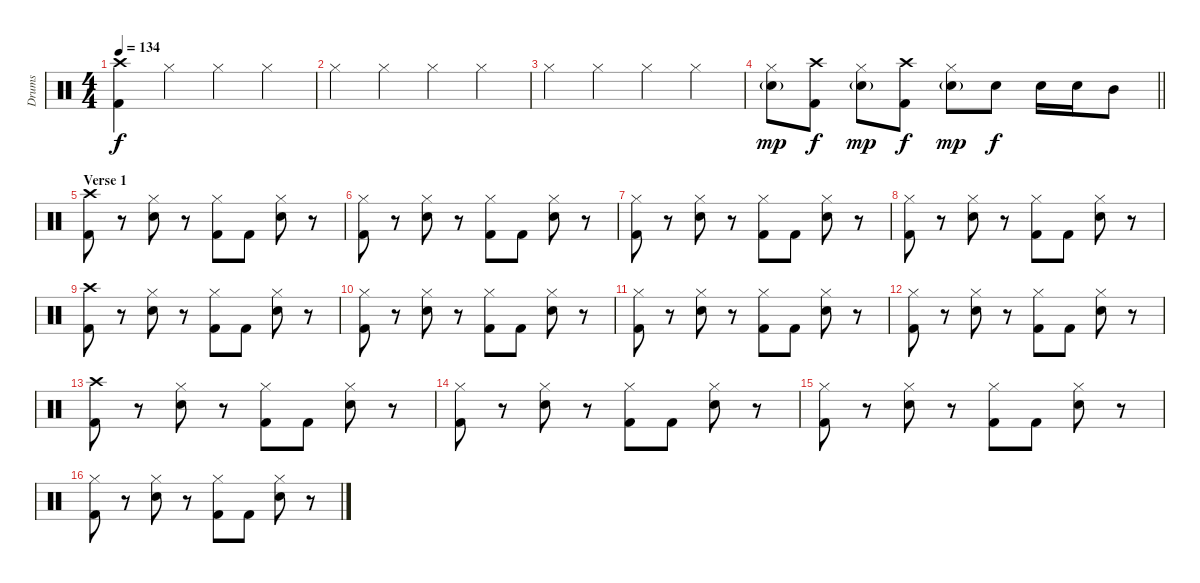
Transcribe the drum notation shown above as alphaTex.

\track ("Drums" "Drums") {instrument percussion}
\staff {score}
\articulation defaults
\ts (4 4)
\tempo 134
\clef neutral
\ks c
("Crash high (hit)" "Kick (hit) 2").4{dy f} "Hi-Hat (closed)".4 "Hi-Hat (closed)".4 "Hi-Hat (closed)".4 |
"Hi-Hat (closed)".4 "Hi-Hat (closed)".4 "Hi-Hat (closed)".4 "Hi-Hat (closed)".4 |
"Hi-Hat (closed)".4 "Hi-Hat (closed)".4 "Hi-Hat (closed)".4 "Hi-Hat (closed)".4 |
\barLineRight lightlight
("Hi-Hat (closed)" "Electric Snare (hit)"{g}).8{dy mp} ("Crash high (hit)" "Kick (hit) 2").8{dy f} ("Hi-Hat (closed)" "Electric Snare (hit)"{g}).8{dy mp} ("Crash high (hit)" "Kick (hit) 2").8{dy f} ("Hi-Hat (closed)" "Electric Snare (hit)"{g}).8{dy mp} "Electric Snare (hit)".8{dy f} "Electric Snare (hit)".16 "Electric Snare (hit)".16 "Mid Tom (hit)".8 |
\section ("" "Verse 1")
("Crash high (hit)" "Kick (hit) 2").8 r.8 ("Hi-Hat (closed)" "Electric Snare (hit)").8 r.8 ("Hi-Hat (closed)" "Kick (hit) 2").8 "Kick (hit) 2".8 ("Hi-Hat (closed)" "Electric Snare (hit)").8 r.8 |
("Hi-Hat (closed)" "Kick (hit) 2").8 r.8 ("Hi-Hat (closed)" "Electric Snare (hit)").8 r.8 ("Hi-Hat (closed)" "Kick (hit) 2").8 "Kick (hit) 2".8 ("Hi-Hat (closed)" "Electric Snare (hit)").8 r.8 |
("Hi-Hat (closed)" "Kick (hit) 2").8 r.8 ("Hi-Hat (closed)" "Electric Snare (hit)").8 r.8 ("Hi-Hat (closed)" "Kick (hit) 2").8 "Kick (hit) 2".8 ("Hi-Hat (closed)" "Electric Snare (hit)").8 r.8 |
("Hi-Hat (closed)" "Kick (hit) 2").8 r.8 ("Hi-Hat (closed)" "Electric Snare (hit)").8 r.8 ("Hi-Hat (closed)" "Kick (hit) 2").8 "Kick (hit) 2".8 ("Hi-Hat (closed)" "Electric Snare (hit)").8 r.8 |
("Crash high (hit)" "Kick (hit) 2").8 r.8 ("Hi-Hat (closed)" "Electric Snare (hit)").8 r.8 ("Hi-Hat (closed)" "Kick (hit) 2").8 "Kick (hit) 2".8 ("Hi-Hat (closed)" "Electric Snare (hit)").8 r.8 |
("Hi-Hat (closed)" "Kick (hit) 2").8 r.8 ("Hi-Hat (closed)" "Electric Snare (hit)").8 r.8 ("Hi-Hat (closed)" "Kick (hit) 2").8 "Kick (hit) 2".8 ("Hi-Hat (closed)" "Electric Snare (hit)").8 r.8 |
("Hi-Hat (closed)" "Kick (hit) 2").8 r.8 ("Hi-Hat (closed)" "Electric Snare (hit)").8 r.8 ("Hi-Hat (closed)" "Kick (hit) 2").8 "Kick (hit) 2".8 ("Hi-Hat (closed)" "Electric Snare (hit)").8 r.8 |
("Hi-Hat (closed)" "Kick (hit) 2").8 r.8 ("Hi-Hat (closed)" "Electric Snare (hit)").8 r.8 ("Hi-Hat (closed)" "Kick (hit) 2").8 "Kick (hit) 2".8 ("Hi-Hat (closed)" "Electric Snare (hit)").8 r.8 |
("Crash high (hit)" "Kick (hit) 2").8 r.8 ("Hi-Hat (closed)" "Electric Snare (hit)").8 r.8 ("Hi-Hat (closed)" "Kick (hit) 2").8 "Kick (hit) 2".8 ("Hi-Hat (closed)" "Electric Snare (hit)").8 r.8 |
("Hi-Hat (closed)" "Kick (hit) 2").8 r.8 ("Hi-Hat (closed)" "Electric Snare (hit)").8 r.8 ("Hi-Hat (closed)" "Kick (hit) 2").8 "Kick (hit) 2".8 ("Hi-Hat (closed)" "Electric Snare (hit)").8 r.8 |
("Hi-Hat (closed)" "Kick (hit) 2").8 r.8 ("Hi-Hat (closed)" "Electric Snare (hit)").8 r.8 ("Hi-Hat (closed)" "Kick (hit) 2").8 "Kick (hit) 2".8 ("Hi-Hat (closed)" "Electric Snare (hit)").8 r.8 |
("Hi-Hat (closed)" "Kick (hit) 2").8 r.8 ("Hi-Hat (closed)" "Electric Snare (hit)").8 r.8 ("Hi-Hat (closed)" "Kick (hit) 2").8 "Kick (hit) 2".8 ("Hi-Hat (closed)" "Electric Snare (hit)").8 r.8
